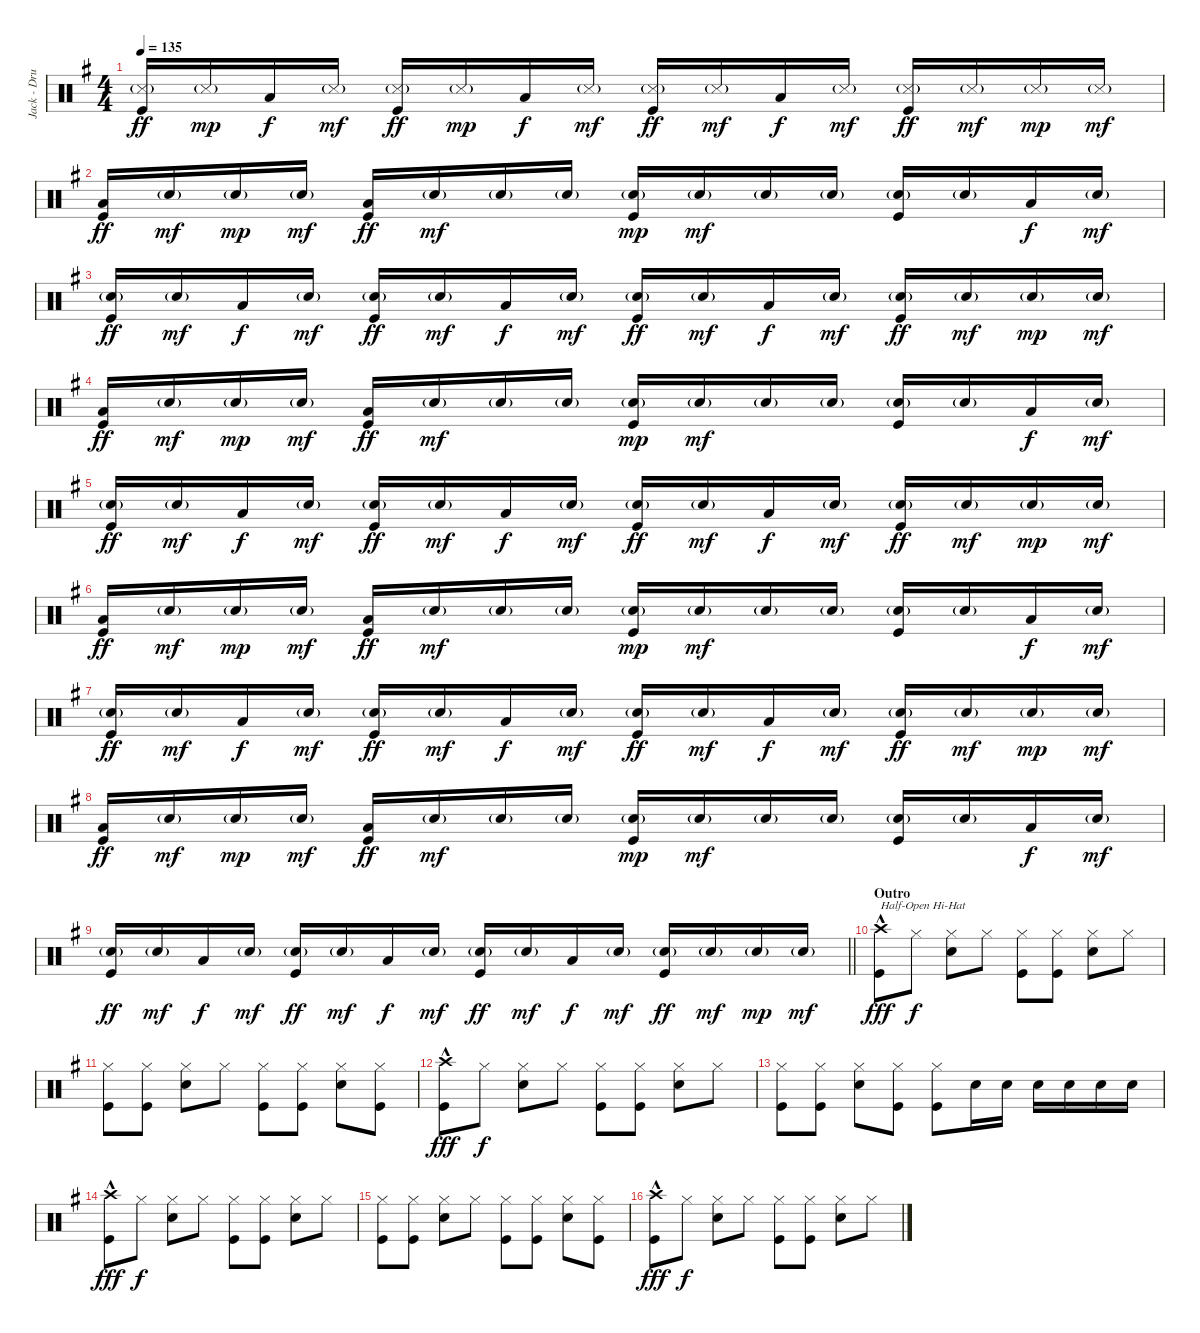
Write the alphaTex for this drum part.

\track ("Jack - Drums" "Jack - Dru") {instrument percussion}
\staff {score}
\articulation defaults
\ts (4 4)
\tempo 135
\clef neutral
\ks g
("Snare (side stick) 3"{g} "Kick (hit)").16{dy ff} "Snare (side stick) 3"{g}.16{dy mp} "Low Tom (hit)".16{dy f} "Snare (side stick) 3"{g}.16{dy mf} ("Snare (side stick) 3"{g} "Kick (hit)").16{dy ff} "Snare (side stick) 3"{g}.16{dy mp} "Low Tom (hit)".16{dy f} "Snare (side stick) 3"{g}.16{dy mf} ("Snare (side stick) 3"{g} "Kick (hit)").16{dy ff} "Snare (side stick) 3"{g}.16{dy mf} "Low Tom (hit)".16{dy f} "Snare (side stick) 3"{g}.16{dy mf} ("Snare (side stick) 3"{g} "Kick (hit)").16{dy ff} "Snare (side stick) 3"{g}.16{dy mf} "Snare (side stick) 3"{g}.16{dy mp} "Snare (side stick) 3"{g}.16{dy mf} |
("Low Tom (hit)" "Kick (hit)").16{dy ff} "Snare (hit) 2"{g}.16{dy mf} "Snare (hit) 2"{g}.16{dy mp} "Snare (hit) 2"{g}.16{dy mf} ("Low Tom (hit)" "Kick (hit)").16{dy ff} "Snare (hit) 2"{g}.16{dy mf} "Snare (hit) 2"{g}.16 "Snare (hit) 2"{g}.16 ("Snare (hit) 2"{g} "Kick (hit)").16{dy mp} "Snare (hit) 2"{g}.16{dy mf} "Snare (hit) 2"{g}.16 "Snare (hit) 2"{g}.16 ("Snare (hit) 2"{g} "Kick (hit)").16 "Snare (hit) 2"{g}.16 "Low Tom (hit)".16{dy f} "Snare (hit) 2"{g}.16{dy mf} |
("Snare (hit) 2"{g} "Kick (hit)").16{dy ff} "Snare (hit) 2"{g}.16{dy mf} "Low Tom (hit)".16{dy f} "Snare (hit) 2"{g}.16{dy mf} ("Snare (hit) 2"{g} "Kick (hit)").16{dy ff} "Snare (hit) 2"{g}.16{dy mf} "Low Tom (hit)".16{dy f} "Snare (hit) 2"{g}.16{dy mf} ("Snare (hit) 2"{g} "Kick (hit)").16{dy ff} "Snare (hit) 2"{g}.16{dy mf} "Low Tom (hit)".16{dy f} "Snare (hit) 2"{g}.16{dy mf} ("Snare (hit) 2"{g} "Kick (hit)").16{dy ff} "Snare (hit) 2"{g}.16{dy mf} "Snare (hit) 2"{g}.16{dy mp} "Snare (hit) 2"{g}.16{dy mf} |
("Low Tom (hit)" "Kick (hit)").16{dy ff} "Snare (hit) 2"{g}.16{dy mf} "Snare (hit) 2"{g}.16{dy mp} "Snare (hit) 2"{g}.16{dy mf} ("Low Tom (hit)" "Kick (hit)").16{dy ff} "Snare (hit) 2"{g}.16{dy mf} "Snare (hit) 2"{g}.16 "Snare (hit) 2"{g}.16 ("Snare (hit) 2"{g} "Kick (hit)").16{dy mp} "Snare (hit) 2"{g}.16{dy mf} "Snare (hit) 2"{g}.16 "Snare (hit) 2"{g}.16 ("Snare (hit) 2"{g} "Kick (hit)").16 "Snare (hit) 2"{g}.16 "Low Tom (hit)".16{dy f} "Snare (hit) 2"{g}.16{dy mf} |
("Snare (hit) 2"{g} "Kick (hit)").16{dy ff} "Snare (hit) 2"{g}.16{dy mf} "Low Tom (hit)".16{dy f} "Snare (hit) 2"{g}.16{dy mf} ("Snare (hit) 2"{g} "Kick (hit)").16{dy ff} "Snare (hit) 2"{g}.16{dy mf} "Low Tom (hit)".16{dy f} "Snare (hit) 2"{g}.16{dy mf} ("Snare (hit) 2"{g} "Kick (hit)").16{dy ff} "Snare (hit) 2"{g}.16{dy mf} "Low Tom (hit)".16{dy f} "Snare (hit) 2"{g}.16{dy mf} ("Snare (hit) 2"{g} "Kick (hit)").16{dy ff} "Snare (hit) 2"{g}.16{dy mf} "Snare (hit) 2"{g}.16{dy mp} "Snare (hit) 2"{g}.16{dy mf} |
("Low Tom (hit)" "Kick (hit)").16{dy ff} "Snare (hit) 2"{g}.16{dy mf} "Snare (hit) 2"{g}.16{dy mp} "Snare (hit) 2"{g}.16{dy mf} ("Low Tom (hit)" "Kick (hit)").16{dy ff} "Snare (hit) 2"{g}.16{dy mf} "Snare (hit) 2"{g}.16 "Snare (hit) 2"{g}.16 ("Snare (hit) 2"{g} "Kick (hit)").16{dy mp} "Snare (hit) 2"{g}.16{dy mf} "Snare (hit) 2"{g}.16 "Snare (hit) 2"{g}.16 ("Snare (hit) 2"{g} "Kick (hit)").16 "Snare (hit) 2"{g}.16 "Low Tom (hit)".16{dy f} "Snare (hit) 2"{g}.16{dy mf} |
("Snare (hit) 2"{g} "Kick (hit)").16{dy ff} "Snare (hit) 2"{g}.16{dy mf} "Low Tom (hit)".16{dy f} "Snare (hit) 2"{g}.16{dy mf} ("Snare (hit) 2"{g} "Kick (hit)").16{dy ff} "Snare (hit) 2"{g}.16{dy mf} "Low Tom (hit)".16{dy f} "Snare (hit) 2"{g}.16{dy mf} ("Snare (hit) 2"{g} "Kick (hit)").16{dy ff} "Snare (hit) 2"{g}.16{dy mf} "Low Tom (hit)".16{dy f} "Snare (hit) 2"{g}.16{dy mf} ("Snare (hit) 2"{g} "Kick (hit)").16{dy ff} "Snare (hit) 2"{g}.16{dy mf} "Snare (hit) 2"{g}.16{dy mp} "Snare (hit) 2"{g}.16{dy mf} |
("Low Tom (hit)" "Kick (hit)").16{dy ff} "Snare (hit) 2"{g}.16{dy mf} "Snare (hit) 2"{g}.16{dy mp} "Snare (hit) 2"{g}.16{dy mf} ("Low Tom (hit)" "Kick (hit)").16{dy ff} "Snare (hit) 2"{g}.16{dy mf} "Snare (hit) 2"{g}.16 "Snare (hit) 2"{g}.16 ("Snare (hit) 2"{g} "Kick (hit)").16{dy mp} "Snare (hit) 2"{g}.16{dy mf} "Snare (hit) 2"{g}.16 "Snare (hit) 2"{g}.16 ("Snare (hit) 2"{g} "Kick (hit)").16 "Snare (hit) 2"{g}.16 "Low Tom (hit)".16{dy f} "Snare (hit) 2"{g}.16{dy mf} |
\barLineRight lightlight
("Snare (hit) 2"{g} "Kick (hit)").16{dy ff} "Snare (hit) 2"{g}.16{dy mf} "Low Tom (hit)".16{dy f} "Snare (hit) 2"{g}.16{dy mf} ("Snare (hit) 2"{g} "Kick (hit)").16{dy ff} "Snare (hit) 2"{g}.16{dy mf} "Low Tom (hit)".16{dy f} "Snare (hit) 2"{g}.16{dy mf} ("Snare (hit) 2"{g} "Kick (hit)").16{dy ff} "Snare (hit) 2"{g}.16{dy mf} "Low Tom (hit)".16{dy f} "Snare (hit) 2"{g}.16{dy mf} ("Snare (hit) 2"{g} "Kick (hit)").16{dy ff} "Snare (hit) 2"{g}.16{dy mf} "Snare (hit) 2"{g}.16{dy mp} "Snare (hit) 2"{g}.16{dy mf} |
\section ("" "Outro")
("Crash high (hit)"{hac} "Kick (hit)").8{txt "Half-Open Hi-Hat" dy fff} "Hi-Hat (closed)".8{dy f} ("Hi-Hat (closed)" "Snare (hit) 2").8 "Hi-Hat (closed)".8 ("Hi-Hat (closed)" "Kick (hit)").8 ("Hi-Hat (closed)" "Kick (hit)").8 ("Hi-Hat (closed)" "Snare (hit) 2").8 "Hi-Hat (closed)".8 |
("Hi-Hat (closed)" "Kick (hit)").8 ("Hi-Hat (closed)" "Kick (hit)").8 ("Hi-Hat (closed)" "Snare (hit) 2").8 "Hi-Hat (closed)".8 ("Hi-Hat (closed)" "Kick (hit)").8 ("Hi-Hat (closed)" "Kick (hit)").8 ("Hi-Hat (closed)" "Snare (hit) 2").8 ("Hi-Hat (closed)" "Kick (hit)").8 |
("Crash high (hit)"{hac} "Kick (hit)").8{dy fff} "Hi-Hat (closed)".8{dy f} ("Hi-Hat (closed)" "Snare (hit) 2").8 "Hi-Hat (closed)".8 ("Hi-Hat (closed)" "Kick (hit)").8 ("Hi-Hat (closed)" "Kick (hit)").8 ("Hi-Hat (closed)" "Snare (hit) 2").8 "Hi-Hat (closed)".8 |
("Hi-Hat (closed)" "Kick (hit)").8 ("Hi-Hat (closed)" "Kick (hit)").8 ("Hi-Hat (closed)" "Snare (hit) 2").8 ("Hi-Hat (closed)" "Kick (hit)").8 ("Hi-Hat (closed)" "Kick (hit)").8 "Snare (hit) 2".16 "Snare (hit) 2".16 "Snare (hit) 2".16 "Snare (hit) 2".16 "Snare (hit) 2".16 "Snare (hit) 2".16 |
("Crash high (hit)"{hac} "Kick (hit)").8{dy fff} "Hi-Hat (closed)".8{dy f} ("Hi-Hat (closed)" "Snare (hit) 2").8 "Hi-Hat (closed)".8 ("Hi-Hat (closed)" "Kick (hit)").8 ("Hi-Hat (closed)" "Kick (hit)").8 ("Hi-Hat (closed)" "Snare (hit) 2").8 "Hi-Hat (closed)".8 |
("Hi-Hat (closed)" "Kick (hit)").8 ("Hi-Hat (closed)" "Kick (hit)").8 ("Hi-Hat (closed)" "Snare (hit) 2").8 "Hi-Hat (closed)".8 ("Hi-Hat (closed)" "Kick (hit)").8 ("Hi-Hat (closed)" "Kick (hit)").8 ("Hi-Hat (closed)" "Snare (hit) 2").8 ("Hi-Hat (closed)" "Kick (hit)").8 |
("Crash high (hit)"{hac} "Kick (hit)").8{dy fff} "Hi-Hat (closed)".8{dy f} ("Hi-Hat (closed)" "Snare (hit) 2").8 "Hi-Hat (closed)".8 ("Hi-Hat (closed)" "Kick (hit)").8 ("Hi-Hat (closed)" "Kick (hit)").8 ("Hi-Hat (closed)" "Snare (hit) 2").8 "Hi-Hat (closed)".8
